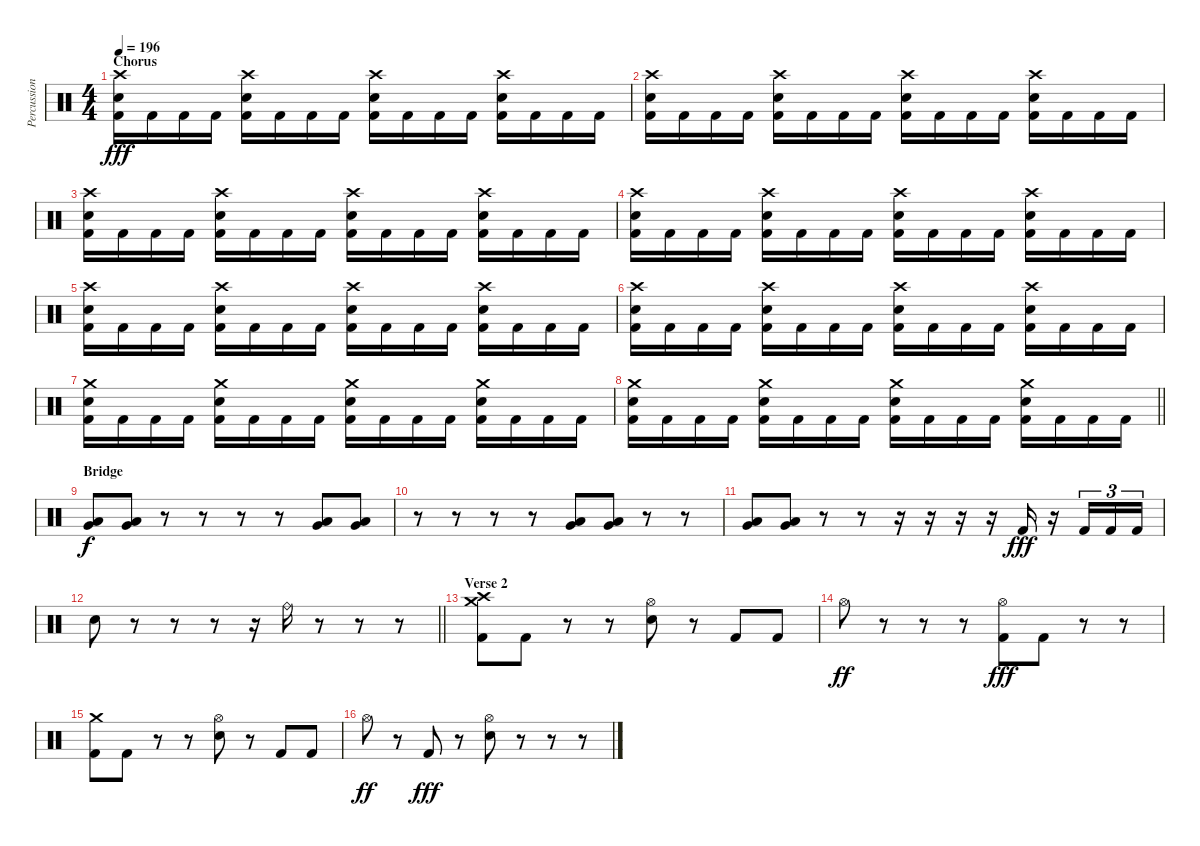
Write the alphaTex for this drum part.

\track ("Percussion" "Percussion") {instrument percussion}
\staff {score}
\articulation defaults
\ts (4 4)
\section ("" "Chorus")
\tempo 196
\clef neutral
\ks c
("Crash high (hit)" "Electric Snare (hit)" "Kick (hit) 2").16{dy fff} "Kick (hit) 2".16 "Kick (hit) 2".16 "Kick (hit) 2".16 ("Crash high (hit)" "Electric Snare (hit)" "Kick (hit) 2").16 "Kick (hit) 2".16 "Kick (hit) 2".16 "Kick (hit) 2".16 ("Crash high (hit)" "Electric Snare (hit)" "Kick (hit) 2").16 "Kick (hit) 2".16 "Kick (hit) 2".16 "Kick (hit) 2".16 ("Crash high (hit)" "Electric Snare (hit)" "Kick (hit) 2").16 "Kick (hit) 2".16 "Kick (hit) 2".16 "Kick (hit) 2".16 |
("Crash high (hit)" "Electric Snare (hit)" "Kick (hit) 2").16 "Kick (hit) 2".16 "Kick (hit) 2".16 "Kick (hit) 2".16 ("Crash high (hit)" "Electric Snare (hit)" "Kick (hit) 2").16 "Kick (hit) 2".16 "Kick (hit) 2".16 "Kick (hit) 2".16 ("Crash high (hit)" "Electric Snare (hit)" "Kick (hit) 2").16 "Kick (hit) 2".16 "Kick (hit) 2".16 "Kick (hit) 2".16 ("Crash high (hit)" "Electric Snare (hit)" "Kick (hit) 2").16 "Kick (hit) 2".16 "Kick (hit) 2".16 "Kick (hit) 2".16 |
("Crash high (hit)" "Electric Snare (hit)" "Kick (hit) 2").16 "Kick (hit) 2".16 "Kick (hit) 2".16 "Kick (hit) 2".16 ("Crash high (hit)" "Electric Snare (hit)" "Kick (hit) 2").16 "Kick (hit) 2".16 "Kick (hit) 2".16 "Kick (hit) 2".16 ("Crash high (hit)" "Electric Snare (hit)" "Kick (hit) 2").16 "Kick (hit) 2".16 "Kick (hit) 2".16 "Kick (hit) 2".16 ("Crash high (hit)" "Electric Snare (hit)" "Kick (hit) 2").16 "Kick (hit) 2".16 "Kick (hit) 2".16 "Kick (hit) 2".16 |
("Crash high (hit)" "Electric Snare (hit)" "Kick (hit) 2").16 "Kick (hit) 2".16 "Kick (hit) 2".16 "Kick (hit) 2".16 ("Crash high (hit)" "Electric Snare (hit)" "Kick (hit) 2").16 "Kick (hit) 2".16 "Kick (hit) 2".16 "Kick (hit) 2".16 ("Crash high (hit)" "Electric Snare (hit)" "Kick (hit) 2").16 "Kick (hit) 2".16 "Kick (hit) 2".16 "Kick (hit) 2".16 ("Crash high (hit)" "Electric Snare (hit)" "Kick (hit) 2").16 "Kick (hit) 2".16 "Kick (hit) 2".16 "Kick (hit) 2".16 |
("Crash high (hit)" "Electric Snare (hit)" "Kick (hit) 2").16 "Kick (hit) 2".16 "Kick (hit) 2".16 "Kick (hit) 2".16 ("Crash high (hit)" "Electric Snare (hit)" "Kick (hit) 2").16 "Kick (hit) 2".16 "Kick (hit) 2".16 "Kick (hit) 2".16 ("Crash high (hit)" "Electric Snare (hit)" "Kick (hit) 2").16 "Kick (hit) 2".16 "Kick (hit) 2".16 "Kick (hit) 2".16 ("Crash high (hit)" "Electric Snare (hit)" "Kick (hit) 2").16 "Kick (hit) 2".16 "Kick (hit) 2".16 "Kick (hit) 2".16 |
("Crash high (hit)" "Electric Snare (hit)" "Kick (hit) 2").16 "Kick (hit) 2".16 "Kick (hit) 2".16 "Kick (hit) 2".16 ("Crash high (hit)" "Electric Snare (hit)" "Kick (hit) 2").16 "Kick (hit) 2".16 "Kick (hit) 2".16 "Kick (hit) 2".16 ("Crash high (hit)" "Electric Snare (hit)" "Kick (hit) 2").16 "Kick (hit) 2".16 "Kick (hit) 2".16 "Kick (hit) 2".16 ("Crash high (hit)" "Electric Snare (hit)" "Kick (hit) 2").16 "Kick (hit) 2".16 "Kick (hit) 2".16 "Kick (hit) 2".16 |
("Crash medium (hit)" "Electric Snare (hit)" "Kick (hit) 2").16 "Kick (hit) 2".16 "Kick (hit) 2".16 "Kick (hit) 2".16 ("Crash medium (hit)" "Electric Snare (hit)" "Kick (hit) 2").16 "Kick (hit) 2".16 "Kick (hit) 2".16 "Kick (hit) 2".16 ("Crash medium (hit)" "Electric Snare (hit)" "Kick (hit) 2").16 "Kick (hit) 2".16 "Kick (hit) 2".16 "Kick (hit) 2".16 ("Crash medium (hit)" "Electric Snare (hit)" "Kick (hit) 2").16 "Kick (hit) 2".16 "Kick (hit) 2".16 "Kick (hit) 2".16 |
\barLineRight lightlight
("Crash medium (hit)" "Electric Snare (hit)" "Kick (hit) 2").16 "Kick (hit) 2".16 "Kick (hit) 2".16 "Kick (hit) 2".16 ("Crash medium (hit)" "Electric Snare (hit)" "Kick (hit) 2").16 "Kick (hit) 2".16 "Kick (hit) 2".16 "Kick (hit) 2".16 ("Crash medium (hit)" "Electric Snare (hit)" "Kick (hit) 2").16 "Kick (hit) 2".16 "Kick (hit) 2".16 "Kick (hit) 2".16 ("Crash medium (hit)" "Electric Snare (hit)" "Kick (hit) 2").16 "Kick (hit) 2".16 "Kick (hit) 2".16 "Kick (hit) 2".16 |
\section ("" "Bridge")
("Very Low Tom (hit)" "Low Floor Tom (hit)").8{dy f} ("Very Low Tom (hit)" "Low Floor Tom (hit)").8 r.8 r.8 r.8 r.8 ("Very Low Tom (hit)" "Low Floor Tom (hit)").8 ("Very Low Tom (hit)" "Low Floor Tom (hit)").8 |
r.8 r.8 r.8 r.8 ("Very Low Tom (hit)" "Low Floor Tom (hit)").8 ("Very Low Tom (hit)" "Low Floor Tom (hit)").8 r.8 r.8 |
("Very Low Tom (hit)" "Low Floor Tom (hit)").8 ("Very Low Tom (hit)" "Low Floor Tom (hit)").8 r.8 r.8 r.16 r.16 r.16 r.16 "Kick (hit) 2".16{dy fff} r.16 "Kick (hit) 2".16{tu (3 2)} "Kick (hit) 2".16{tu (3 2)} "Kick (hit) 2".16{tu (3 2)} |
\barLineRight lightlight "Electric Snare (hit)".8
r.8 r.8 r.8 r.16 "Ride (bell)".16 r.8 r.8 r.8 |
\section ("" "Verse 2")
("Crash medium (hit)" "Crash high (hit)" "Kick (hit) 2").8 "Kick (hit) 2".8 r.8 r.8 ("Hi-Hat (open)" "Electric Snare (hit)").8 r.8 "Kick (hit) 2".8 "Kick (hit) 2".8 |
"Hi-Hat (open)".8{dy ff} r.8 r.8 r.8 ("Hi-Hat (open)" "Kick (hit) 2").8{dy fff} "Kick (hit) 2".8 r.8 r.8 |
("Crash medium (hit)" "Kick (hit) 2").8 "Kick (hit) 2".8 r.8 r.8 ("Hi-Hat (open)" "Electric Snare (hit)").8 r.8 "Kick (hit) 2".8 "Kick (hit) 2".8 |
"Hi-Hat (open)".8{dy ff} r.8 "Kick (hit) 2".8{dy fff} r.8 ("Hi-Hat (open)" "Electric Snare (hit)").8 r.8 r.8 r.8
